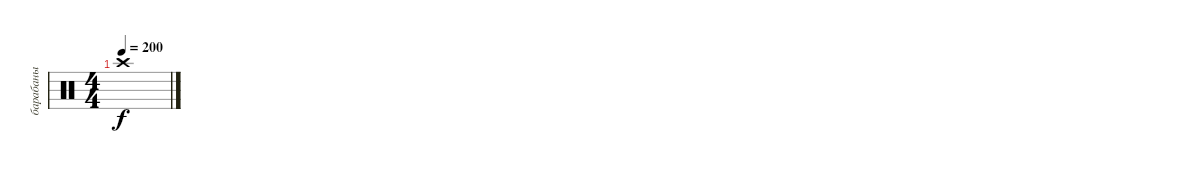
\track ("барабаны" "барабаны") {instrument percussion}
\staff {score}
\articulation defaults
\ts (4 4)
\tempo 200
\clef neutral
\ks c "Crash high (hit)".1{dy f}
